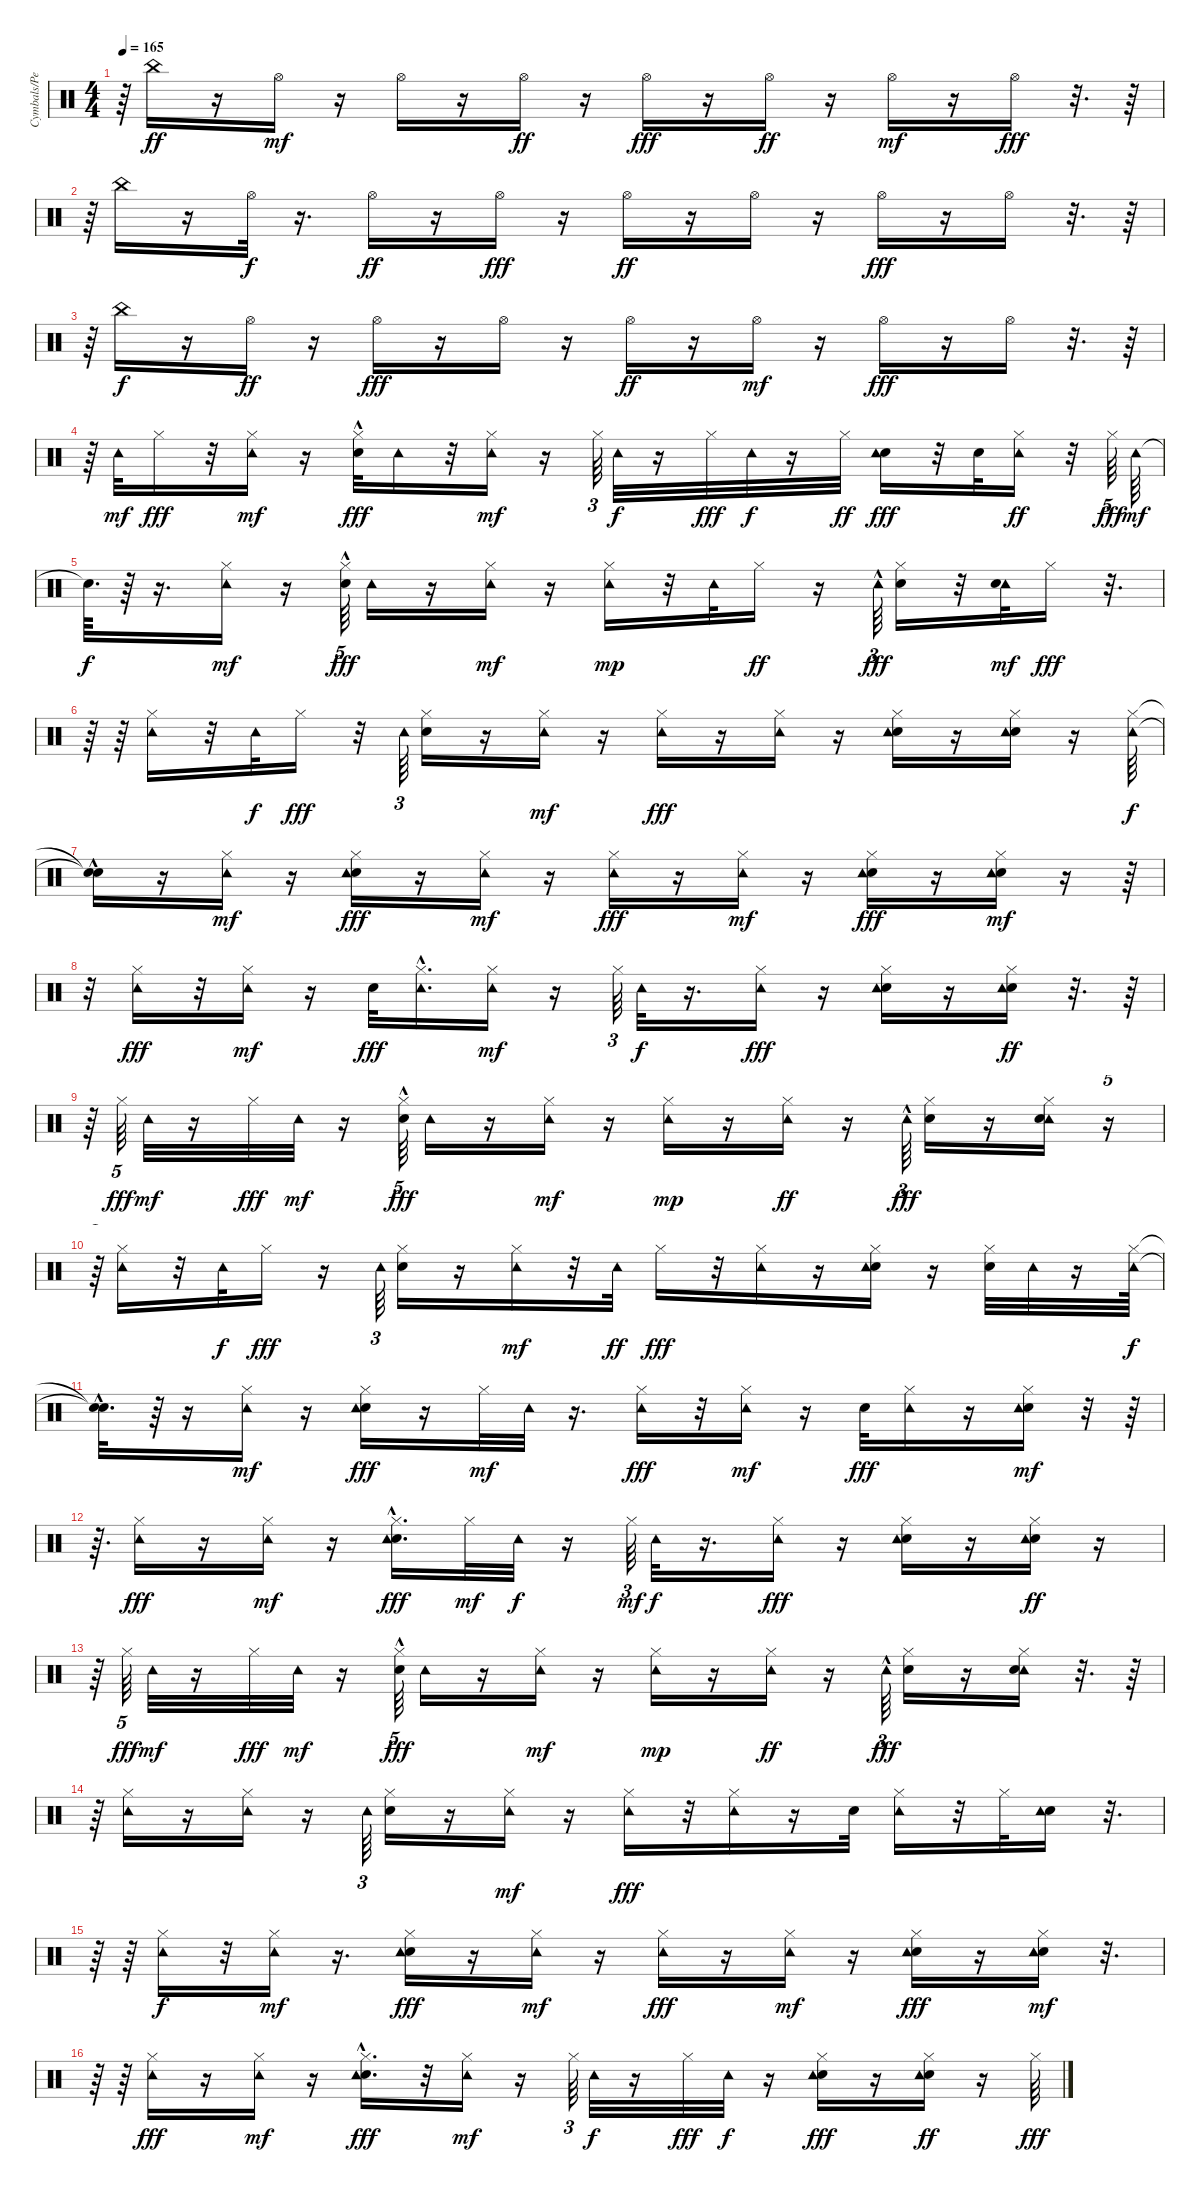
\track ("Cymbals/Percussion" "Cymbals/Pe") {instrument percussion}
\staff {score}
\articulation defaults
\ts (4 4)
\tempo 165
\clef neutral
\ks c
r.64{dy fff} "China (hit)".16{dy ff} r.16 "Hi-Hat (open)".16{dy mf} r.16 "Hi-Hat (open)".16 r.16 "Hi-Hat (open)".16{dy ff} r.16 "Hi-Hat (open)".16{dy fff} r.16 "Hi-Hat (open)".16{dy ff} r.16 "Hi-Hat (open)".16{dy mf} r.16 "Hi-Hat (open)".16{dy fff} r.32{d} r.64 |
r.64 "China (hit)".16 r.16 "Hi-Hat (open)".32{dy f} r.16{d} "Hi-Hat (open)".16{dy ff} r.16 "Hi-Hat (open)".16{dy fff} r.16 "Hi-Hat (open)".16{dy ff} r.16 "Hi-Hat (open)".16 r.16 "Hi-Hat (open)".16{dy fff} r.16 "Hi-Hat (open)".16 r.32{d} r.64 |
r.64 "China (hit)".16{dy f} r.16 "Hi-Hat (open)".16{dy ff} r.16 "Hi-Hat (open)".16{dy fff} r.16 "Hi-Hat (open)".16 r.16 "Hi-Hat (open)".16{dy ff} r.16 "Hi-Hat (open)".16{dy mf} r.16 "Hi-Hat (open)".16{dy fff} r.16 "Hi-Hat (open)".16 r.32{d} r.64 |
r.64 "Tambourine (hit)".32{dy mf} "Hi-Hat (closed)".16{dy fff} r.32 ("Hi-Hat (closed)" "Tambourine (hit)").16{dy mf} r.16 ("Hand Clap (hit)" "Hi-Hat (closed)"{hac}).32{dy fff} "Tambourine (hit)".16 r.32 ("Hi-Hat (closed)" "Tambourine (hit)").16{dy mf} r.16 "Hi-Hat (closed)".64{tu (3 2)} "Tambourine (hit)".32{dy f} r.16 "Hi-Hat (closed)".32{dy fff} "Tambourine (hit)".32{dy f} r.16 "Hi-Hat (closed)".32{dy ff} ("Hand Clap (hit)" "Tambourine (hit)").16{dy fff} r.32 "Hand Clap (hit)".32 ("Tambourine (hit)" "Hi-Hat (closed)").16{dy ff} r.32 "Hi-Hat (closed)".64{tu (5 4) dy fff} "Tambourine (hit)".64{dy mf} |
"Snare (hit)"{t}.64{d dy f} r.64 r.16{d} ("Hi-Hat (closed)" "Tambourine (hit)").16{dy mf} r.16 ("Hi-Hat (closed)"{hac} "Hand Clap (hit)").64{tu (5 4) dy fff} "Tambourine (hit)".16 r.16 ("Hi-Hat (closed)" "Tambourine (hit)").16{dy mf} r.16 ("Hi-Hat (closed)" "Tambourine (hit)").16{dy mp} r.32 "Tambourine (hit)".32 "Hi-Hat (closed)".16{dy ff} r.16 "Tambourine (hit)"{hac}.64{tu (3 2) dy fff} ("Hi-Hat (closed)" "Hand Clap (hit)").16 r.32 ("Tambourine (hit)" "Hand Clap (hit)").32{dy mf} "Hi-Hat (closed)".16{dy fff} r.32{d} |
r.64 r.64 ("Tambourine (hit)" "Hi-Hat (closed)").16 r.32 "Tambourine (hit)".32{dy f} "Hi-Hat (closed)".16{dy fff} r.32 "Tambourine (hit)".64{tu (3 2)} ("Hand Clap (hit)" "Hi-Hat (closed)").16 r.16 ("Tambourine (hit)" "Hi-Hat (closed)").16{dy mf} r.16 ("Tambourine (hit)" "Hi-Hat (closed)").16{dy fff} r.16 ("Tambourine (hit)" "Hi-Hat (closed)").16 r.16 ("Hand Clap (hit)" "Hi-Hat (closed)" "Tambourine (hit)").16 r.16 ("Hi-Hat (closed)" "Hand Clap (hit)" "Tambourine (hit)").16 r.16 ("Hi-Hat (closed)" "Tambourine (hit)").64{dy f} |
("Snare (hit)"{hac t} "Snare (hit)"{hac t}).16 r.16 ("Hi-Hat (closed)" "Tambourine (hit)").16{dy mf} r.16 ("Hand Clap (hit)" "Hi-Hat (closed)" "Tambourine (hit)").16{dy fff} r.16 ("Hi-Hat (closed)" "Tambourine (hit)").16{dy mf} r.16 ("Tambourine (hit)" "Hi-Hat (closed)").16{dy fff} r.16 ("Hi-Hat (closed)" "Tambourine (hit)").16{dy mf} r.16 ("Hand Clap (hit)" "Hi-Hat (closed)" "Tambourine (hit)").16{dy fff} r.16 ("Hi-Hat (closed)" "Hand Clap (hit)" "Tambourine (hit)").16{dy mf} r.16 r.64 |
r.32 ("Tambourine (hit)" "Hi-Hat (closed)").16{dy fff} r.32 ("Hi-Hat (closed)" "Tambourine (hit)").16{dy mf} r.16 "Hand Clap (hit)".32{dy fff} ("Hi-Hat (closed)"{hac} "Tambourine (hit)").16{d} ("Hi-Hat (closed)" "Tambourine (hit)").16{dy mf} r.16 "Hi-Hat (closed)".64{tu (3 2)} "Tambourine (hit)".32{dy f} r.16{d} ("Hi-Hat (closed)" "Tambourine (hit)").16{dy fff} r.16 ("Hi-Hat (closed)" "Hand Clap (hit)" "Tambourine (hit)").16 r.16 ("Hand Clap (hit)" "Tambourine (hit)" "Hi-Hat (closed)").16{dy ff} r.32{d} r.64 |
r.64 "Hi-Hat (closed)".64{tu (5 4) dy fff} "Tambourine (hit)".32{dy mf} r.16 "Hi-Hat (closed)".32{dy fff} "Tambourine (hit)".32{dy mf} r.16 ("Hi-Hat (closed)"{hac} "Hand Clap (hit)").64{tu (5 4) dy fff} "Tambourine (hit)".16 r.16 ("Hi-Hat (closed)" "Tambourine (hit)").16{dy mf} r.16 ("Hi-Hat (closed)" "Tambourine (hit)").16{dy mp} r.16 ("Tambourine (hit)" "Hi-Hat (closed)").16{dy ff} r.16 "Tambourine (hit)"{hac}.64{tu (3 2) dy fff} ("Hi-Hat (closed)" "Hand Clap (hit)").16 r.16 ("Tambourine (hit)" "Hand Clap (hit)" "Hi-Hat (closed)").16 r.16{tu (5 4)} |
r.64{tu (5 4)} ("Tambourine (hit)" "Hi-Hat (closed)").16 r.32 "Tambourine (hit)".32{dy f} "Hi-Hat (closed)".16{dy fff} r.16 "Tambourine (hit)".64{tu (3 2)} ("Hand Clap (hit)" "Hi-Hat (closed)").16 r.16 ("Tambourine (hit)" "Hi-Hat (closed)").16{dy mf} r.32 "Tambourine (hit)".32{dy ff} "Hi-Hat (closed)".16{dy fff} r.32 ("Tambourine (hit)" "Hi-Hat (closed)").16 r.16 ("Hand Clap (hit)" "Hi-Hat (closed)" "Tambourine (hit)").16 r.16 ("Hi-Hat (closed)" "Hand Clap (hit)").32 "Tambourine (hit)".32 r.16 ("Hi-Hat (closed)" "Tambourine (hit)").64{dy f} |
("Snare (hit)"{hac t} "Snare (hit)"{hac t}).32{d} r.64 r.16 ("Hi-Hat (closed)" "Tambourine (hit)").16{dy mf} r.16 ("Hand Clap (hit)" "Hi-Hat (closed)" "Tambourine (hit)").16{dy fff} r.16 "Hi-Hat (closed)".32{dy mf} "Tambourine (hit)".32 r.16{d} ("Tambourine (hit)" "Hi-Hat (closed)").16{dy fff} r.32 ("Hi-Hat (closed)" "Tambourine (hit)").16{dy mf} r.16 "Hand Clap (hit)".32{dy fff} ("Hi-Hat (closed)" "Tambourine (hit)").16 r.16 ("Hi-Hat (closed)" "Hand Clap (hit)" "Tambourine (hit)").16{dy mf} r.32 r.64 |
r.64{d} ("Tambourine (hit)" "Hi-Hat (closed)").16{dy fff} r.16 ("Hi-Hat (closed)" "Tambourine (hit)").16{dy mf} r.16 ("Hand Clap (hit)" "Hi-Hat (closed)"{hac} "Tambourine (hit)").16{d dy fff} "Hi-Hat (closed)".32{dy mf} "Tambourine (hit)".32{dy f} r.16 "Hi-Hat (closed)".64{tu (3 2) dy mf} "Tambourine (hit)".32{dy f} r.16{d} ("Hi-Hat (closed)" "Tambourine (hit)").16{dy fff} r.16 ("Hi-Hat (closed)" "Hand Clap (hit)" "Tambourine (hit)").16 r.16 ("Hand Clap (hit)" "Tambourine (hit)" "Hi-Hat (closed)").16{dy ff} r.16 |
r.64 "Hi-Hat (closed)".64{tu (5 4) dy fff} "Tambourine (hit)".32{dy mf} r.16 "Hi-Hat (closed)".32{dy fff} "Tambourine (hit)".32{dy mf} r.16 ("Hi-Hat (closed)"{hac} "Hand Clap (hit)").64{tu (5 4) dy fff} "Tambourine (hit)".16 r.16 ("Hi-Hat (closed)" "Tambourine (hit)").16{dy mf} r.16 ("Hi-Hat (closed)" "Tambourine (hit)").16{dy mp} r.16 ("Tambourine (hit)" "Hi-Hat (closed)").16{dy ff} r.16 "Tambourine (hit)"{hac}.64{tu (3 2) dy fff} ("Hi-Hat (closed)" "Hand Clap (hit)").16 r.16 ("Tambourine (hit)" "Hand Clap (hit)" "Hi-Hat (closed)").16 r.32{d} r.64 |
r.64 ("Tambourine (hit)" "Hi-Hat (closed)").16 r.16 ("Tambourine (hit)" "Hi-Hat (closed)").16 r.16 "Tambourine (hit)".64{tu (3 2)} ("Hand Clap (hit)" "Hi-Hat (closed)").16 r.16 ("Tambourine (hit)" "Hi-Hat (closed)").16{dy mf} r.16 ("Tambourine (hit)" "Hi-Hat (closed)").16{dy fff} r.32 ("Tambourine (hit)" "Hi-Hat (closed)").16 r.16 "Hand Clap (hit)".32 ("Hi-Hat (closed)" "Tambourine (hit)").16 r.32 "Hi-Hat (closed)".32 ("Hand Clap (hit)" "Tambourine (hit)").16 r.32{d} |
r.64 r.64 ("Hi-Hat (closed)" "Tambourine (hit)").16{dy f} r.32 ("Hi-Hat (closed)" "Tambourine (hit)").16{dy mf} r.16{d} ("Hand Clap (hit)" "Hi-Hat (closed)" "Tambourine (hit)").16{dy fff} r.16 ("Hi-Hat (closed)" "Tambourine (hit)").16{dy mf} r.16 ("Tambourine (hit)" "Hi-Hat (closed)").16{dy fff} r.16 ("Hi-Hat (closed)" "Tambourine (hit)").16{dy mf} r.16 ("Hand Clap (hit)" "Hi-Hat (closed)" "Tambourine (hit)").16{dy fff} r.16 ("Hi-Hat (closed)" "Hand Clap (hit)" "Tambourine (hit)").16{dy mf} r.32{d} |
r.64 r.64 ("Tambourine (hit)" "Hi-Hat (closed)").16{dy fff} r.16 ("Hi-Hat (closed)" "Tambourine (hit)").16{dy mf} r.16 ("Hand Clap (hit)" "Hi-Hat (closed)"{hac} "Tambourine (hit)").16{d dy fff} r.32 ("Hi-Hat (closed)" "Tambourine (hit)").16{dy mf} r.16 "Hi-Hat (closed)".64{tu (3 2)} "Tambourine (hit)".32{dy f} r.16 "Hi-Hat (closed)".32{dy fff} "Tambourine (hit)".32{dy f} r.16 ("Hi-Hat (closed)" "Hand Clap (hit)" "Tambourine (hit)").16{dy fff} r.16 ("Hand Clap (hit)" "Tambourine (hit)" "Hi-Hat (closed)").16{dy ff} r.16 "Hi-Hat (closed)".64{dy fff}
